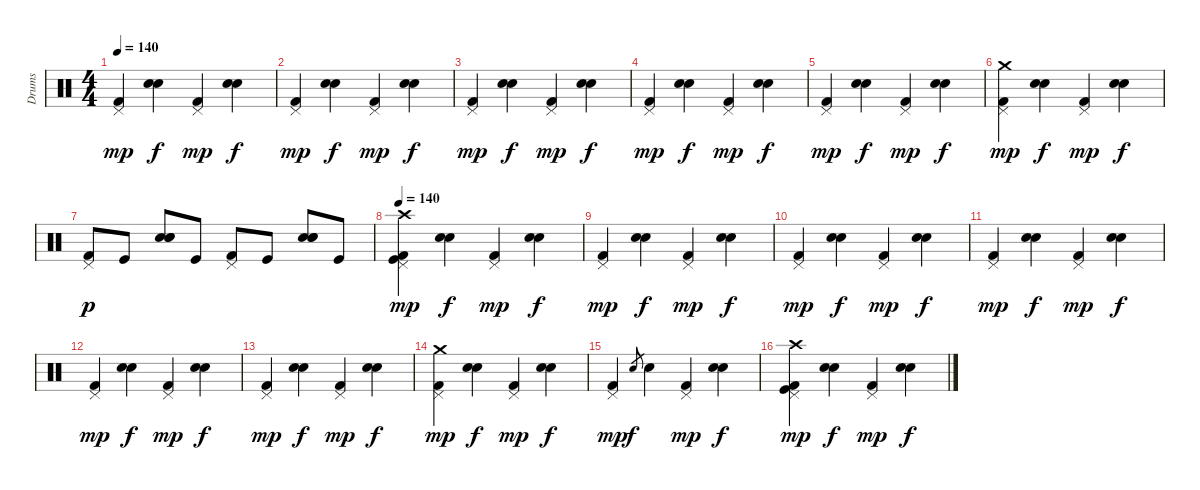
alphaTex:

\track ("Drums" "Drums") {instrument percussion}
\staff {score}
\articulation defaults
\ts (4 4)
\tempo 140
\clef neutral
\ks c
("Pedal Hi-Hat (hit)" "Kick (hit) 2").4{dy mp} ("Snare (hit) 2" "Electric Snare (hit)").4{dy f} ("Pedal Hi-Hat (hit)" "Kick (hit) 2").4{dy mp} ("Snare (hit) 2" "Electric Snare (hit)").4{dy f} |
("Pedal Hi-Hat (hit)" "Kick (hit) 2").4{dy mp} ("Snare (hit) 2" "Electric Snare (hit)").4{dy f} ("Pedal Hi-Hat (hit)" "Kick (hit) 2").4{dy mp} ("Snare (hit) 2" "Electric Snare (hit)").4{dy f} |
("Pedal Hi-Hat (hit)" "Kick (hit) 2").4{dy mp} ("Snare (hit) 2" "Electric Snare (hit)").4{dy f} ("Pedal Hi-Hat (hit)" "Kick (hit) 2").4{dy mp} ("Snare (hit) 2" "Electric Snare (hit)").4{dy f} |
("Pedal Hi-Hat (hit)" "Kick (hit) 2").4{dy mp} ("Snare (hit) 2" "Electric Snare (hit)").4{dy f} ("Pedal Hi-Hat (hit)" "Kick (hit) 2").4{dy mp} ("Snare (hit) 2" "Electric Snare (hit)").4{dy f} |
("Pedal Hi-Hat (hit)" "Kick (hit) 2").4{dy mp} ("Snare (hit) 2" "Electric Snare (hit)").4{dy f} ("Pedal Hi-Hat (hit)" "Kick (hit) 2").4{dy mp} ("Snare (hit) 2" "Electric Snare (hit)").4{dy f} |
("Pedal Hi-Hat (hit)" "Crash medium (hit)" "Kick (hit) 2").4{dy mp} ("Snare (hit) 2" "Electric Snare (hit)").4{dy f} ("Pedal Hi-Hat (hit)" "Kick (hit) 2").4{dy mp} ("Snare (hit) 2" "Electric Snare (hit)").4{dy f} |
("Pedal Hi-Hat (hit)" "Kick (hit) 2").8{dy p} "Kick (hit)".8 ("Hand Clap (hit)" "Snare (hit) 2" "Electric Snare (hit)").8 "Kick (hit)".8 ("Pedal Hi-Hat (hit)" "Kick (hit) 2").8 "Kick (hit)".8 ("Hand Clap (hit)" "Snare (hit) 2" "Electric Snare (hit)").8 "Kick (hit)".8 |
\tempo 140
("Pedal Hi-Hat (hit)" "Kick (hit)" "Crash high (hit)" "Kick (hit) 2").4{dy mp volume 13} ("Snare (hit) 2" "Electric Snare (hit)").4{dy f} ("Pedal Hi-Hat (hit)" "Kick (hit) 2").4{dy mp} ("Snare (hit) 2" "Electric Snare (hit)").4{dy f} |
("Pedal Hi-Hat (hit)" "Kick (hit) 2").4{dy mp} ("Snare (hit) 2" "Electric Snare (hit)").4{dy f} ("Pedal Hi-Hat (hit)" "Kick (hit) 2").4{dy mp} ("Snare (hit) 2" "Electric Snare (hit)").4{dy f} |
("Pedal Hi-Hat (hit)" "Kick (hit) 2").4{dy mp} ("Snare (hit) 2" "Electric Snare (hit)").4{dy f} ("Pedal Hi-Hat (hit)" "Kick (hit) 2").4{dy mp} ("Snare (hit) 2" "Electric Snare (hit)").4{dy f} |
("Pedal Hi-Hat (hit)" "Kick (hit) 2").4{dy mp} ("Snare (hit) 2" "Electric Snare (hit)").4{dy f} ("Pedal Hi-Hat (hit)" "Kick (hit) 2").4{dy mp} ("Snare (hit) 2" "Electric Snare (hit)").4{dy f} |
("Pedal Hi-Hat (hit)" "Kick (hit) 2").4{dy mp} ("Snare (hit) 2" "Electric Snare (hit)").4{dy f} ("Pedal Hi-Hat (hit)" "Kick (hit) 2").4{dy mp} ("Snare (hit) 2" "Electric Snare (hit)").4{dy f} |
("Pedal Hi-Hat (hit)" "Kick (hit) 2").4{dy mp} ("Snare (hit) 2" "Electric Snare (hit)").4{dy f} ("Pedal Hi-Hat (hit)" "Kick (hit) 2").4{dy mp} ("Snare (hit) 2" "Electric Snare (hit)").4{dy f} |
("Pedal Hi-Hat (hit)" "Crash medium (hit)" "Kick (hit) 2").4{dy mp} ("Snare (hit) 2" "Electric Snare (hit)").4{dy f} ("Pedal Hi-Hat (hit)" "Kick (hit) 2").4{dy mp} ("Snare (hit) 2" "Electric Snare (hit)").4{dy f} |
("Pedal Hi-Hat (hit)" "Kick (hit) 2").4{dy mp} "Snare (hit) 2".8{gr dy f} "Electric Snare (hit)".4 ("Pedal Hi-Hat (hit)" "Kick (hit) 2").4{dy mp} ("Snare (hit) 2" "Electric Snare (hit)").4{dy f} |
("Pedal Hi-Hat (hit)" "Kick (hit)" "Crash high (hit)" "Kick (hit) 2").4{dy mp} ("Snare (hit) 2" "Electric Snare (hit)").4{dy f} ("Pedal Hi-Hat (hit)" "Kick (hit) 2").4{dy mp} ("Snare (hit) 2" "Electric Snare (hit)").4{dy f}
